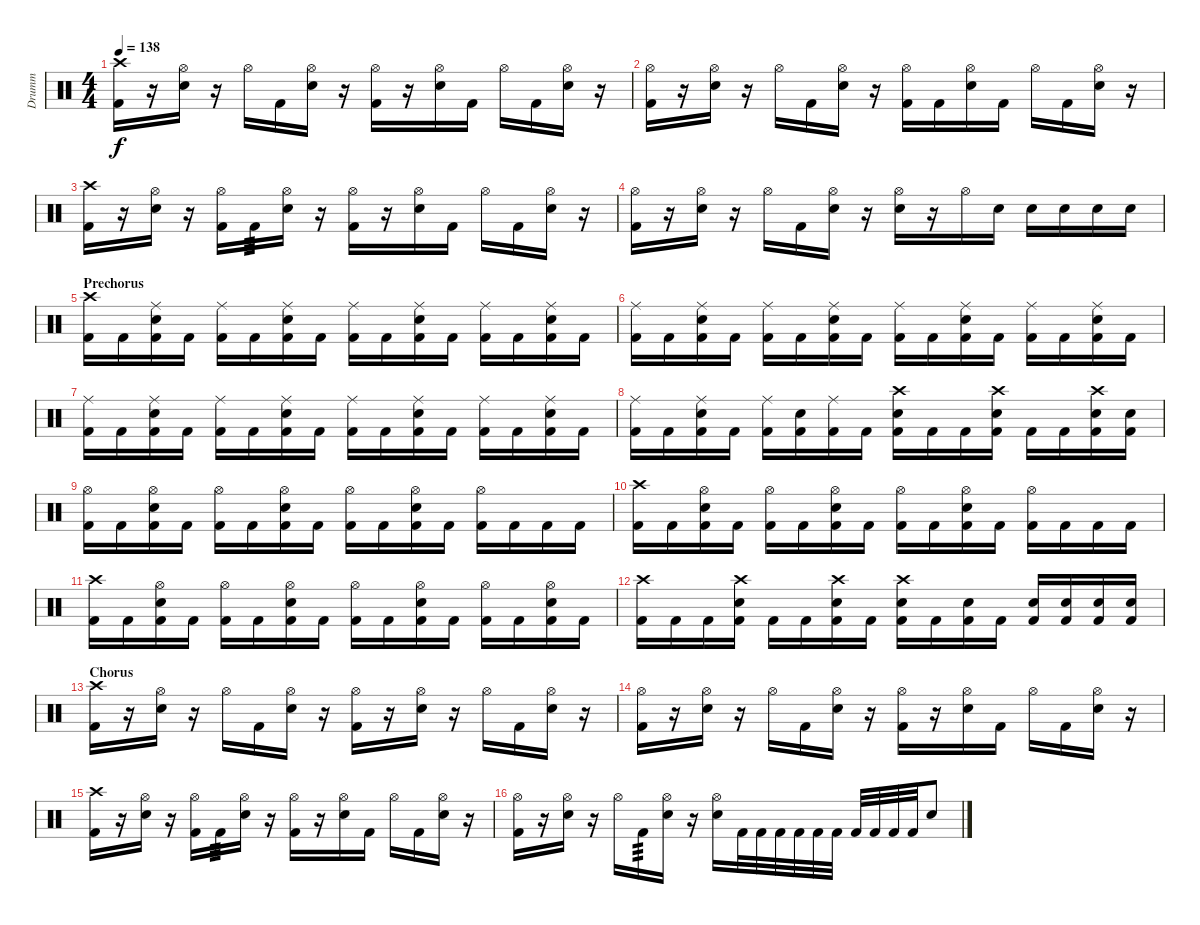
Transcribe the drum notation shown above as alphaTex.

\track ("Drumm" "Drumm") {instrument percussion}
\staff {score}
\articulation defaults
\ts (4 4)
\tempo 138
\clef neutral
\ks c
("Crash high (hit)" "Kick (hit) 2").16{dy f} r.16 ("Hi-Hat (open)" "Snare (hit) 2").16 r.16 "Hi-Hat (open)".16 "Kick (hit) 2".16 ("Hi-Hat (open)" "Snare (hit) 2").16 r.16 ("Hi-Hat (open)" "Kick (hit) 2").16 r.16 ("Hi-Hat (open)" "Snare (hit) 2").16 "Kick (hit) 2".16 "Hi-Hat (open)".16 "Kick (hit) 2".16 ("Hi-Hat (open)" "Snare (hit) 2").16 r.16 |
("Hi-Hat (open)" "Kick (hit) 2").16 r.16 ("Hi-Hat (open)" "Snare (hit) 2").16 r.16 "Hi-Hat (open)".16 "Kick (hit) 2".16 ("Hi-Hat (open)" "Snare (hit) 2").16 r.16 ("Hi-Hat (open)" "Kick (hit) 2").16 "Kick (hit) 2".16 ("Hi-Hat (open)" "Snare (hit) 2").16 "Kick (hit) 2".16 "Hi-Hat (open)".16 "Kick (hit) 2".16 ("Hi-Hat (open)" "Snare (hit) 2").16 r.16 |
("Crash high (hit)" "Kick (hit) 2").16 r.16 ("Hi-Hat (open)" "Snare (hit) 2").16 r.16 ("Hi-Hat (open)" "Kick (hit) 2").16 "Kick (hit) 2".16{tp 3} ("Hi-Hat (open)" "Snare (hit) 2").16 r.16 ("Hi-Hat (open)" "Kick (hit) 2").16 r.16 ("Hi-Hat (open)" "Snare (hit) 2").16 "Kick (hit) 2".16 "Hi-Hat (open)".16 "Kick (hit) 2".16 ("Hi-Hat (open)" "Snare (hit) 2").16 r.16 |
("Hi-Hat (open)" "Kick (hit) 2").16 r.16 ("Hi-Hat (open)" "Snare (hit) 2").16 r.16 "Hi-Hat (open)".16 "Kick (hit) 2".16 ("Hi-Hat (open)" "Snare (hit) 2").16 r.16 ("Hi-Hat (open)" "Snare (hit) 2").16 r.16 "Hi-Hat (open)".16 "Snare (hit) 2".16 "Snare (hit) 2".16 "Snare (hit) 2".16 "Snare (hit) 2".16 "Snare (hit) 2".16 |
\section ("" "Prechorus")
("Crash high (hit)" "Kick (hit) 2").16 "Kick (hit) 2".16 ("Ride (middle)" "Snare (hit) 2" "Kick (hit) 2").16 "Kick (hit) 2".16 ("Ride (middle)" "Kick (hit) 2").16 "Kick (hit) 2".16 ("Ride (middle)" "Snare (hit) 2" "Kick (hit) 2").16 "Kick (hit) 2".16 ("Ride (middle)" "Kick (hit) 2").16 "Kick (hit) 2".16 ("Ride (middle)" "Snare (hit) 2" "Kick (hit) 2").16 "Kick (hit) 2".16 ("Ride (middle)" "Kick (hit) 2").16 "Kick (hit) 2".16 ("Ride (middle)" "Snare (hit) 2" "Kick (hit) 2").16 "Kick (hit) 2".16 |
("Ride (middle)" "Kick (hit) 2").16 "Kick (hit) 2".16 ("Ride (middle)" "Snare (hit) 2" "Kick (hit) 2").16 "Kick (hit) 2".16 ("Ride (middle)" "Kick (hit) 2").16 "Kick (hit) 2".16 ("Ride (middle)" "Snare (hit) 2" "Kick (hit) 2").16 "Kick (hit) 2".16 ("Ride (middle)" "Kick (hit) 2").16 "Kick (hit) 2".16 ("Ride (middle)" "Snare (hit) 2" "Kick (hit) 2").16 "Kick (hit) 2".16 ("Ride (middle)" "Kick (hit) 2").16 "Kick (hit) 2".16 ("Ride (middle)" "Snare (hit) 2" "Kick (hit) 2").16 "Kick (hit) 2".16 |
("Ride (middle)" "Kick (hit) 2").16 "Kick (hit) 2".16 ("Ride (middle)" "Snare (hit) 2" "Kick (hit) 2").16 "Kick (hit) 2".16 ("Ride (middle)" "Kick (hit) 2").16 "Kick (hit) 2".16 ("Ride (middle)" "Snare (hit) 2" "Kick (hit) 2").16 "Kick (hit) 2".16 ("Ride (middle)" "Kick (hit) 2").16 "Kick (hit) 2".16 ("Ride (middle)" "Snare (hit) 2" "Kick (hit) 2").16 "Kick (hit) 2".16 ("Ride (middle)" "Kick (hit) 2").16 "Kick (hit) 2".16 ("Ride (middle)" "Snare (hit) 2" "Kick (hit) 2").16 "Kick (hit) 2".16 |
("Ride (middle)" "Kick (hit) 2").16 "Kick (hit) 2".16 ("Ride (middle)" "Snare (hit) 2" "Kick (hit) 2").16 "Kick (hit) 2".16 ("Ride (middle)" "Kick (hit) 2").16 ("Snare (hit) 2" "Kick (hit) 2").16 ("Ride (middle)" "Kick (hit) 2").16 "Kick (hit) 2".16 ("Crash high (hit)" "Snare (hit) 2" "Kick (hit) 2").16 "Kick (hit) 2".16 "Kick (hit) 2".16 ("Crash high (hit)" "Snare (hit) 2" "Kick (hit) 2").16 "Kick (hit) 2".16 "Kick (hit) 2".16 ("Crash high (hit)" "Snare (hit) 2" "Kick (hit) 2").16 ("Snare (hit) 2" "Kick (hit) 2").16 |
("Hi-Hat (open)" "Kick (hit) 2").16 "Kick (hit) 2".16 ("Hi-Hat (open)" "Snare (hit) 2" "Kick (hit) 2").16 "Kick (hit) 2".16 ("Hi-Hat (open)" "Kick (hit) 2").16 "Kick (hit) 2".16 ("Hi-Hat (open)" "Snare (hit) 2" "Kick (hit) 2").16 "Kick (hit) 2".16 ("Hi-Hat (open)" "Kick (hit) 2").16 "Kick (hit) 2".16 ("Hi-Hat (open)" "Snare (hit) 2" "Kick (hit) 2").16 "Kick (hit) 2".16 ("Hi-Hat (open)" "Kick (hit) 2").16 "Kick (hit) 2".16 "Kick (hit) 2".16 "Kick (hit) 2".16 |
("Crash high (hit)" "Kick (hit) 2").16 "Kick (hit) 2".16 ("Hi-Hat (open)" "Snare (hit) 2" "Kick (hit) 2").16 "Kick (hit) 2".16 ("Hi-Hat (open)" "Kick (hit) 2").16 "Kick (hit) 2".16 ("Hi-Hat (open)" "Snare (hit) 2" "Kick (hit) 2").16 "Kick (hit) 2".16 ("Hi-Hat (open)" "Kick (hit) 2").16 "Kick (hit) 2".16 ("Hi-Hat (open)" "Snare (hit) 2" "Kick (hit) 2").16 "Kick (hit) 2".16 ("Hi-Hat (open)" "Kick (hit) 2").16 "Kick (hit) 2".16 "Kick (hit) 2".16 "Kick (hit) 2".16 |
("Crash high (hit)" "Kick (hit) 2").16 "Kick (hit) 2".16 ("Hi-Hat (open)" "Snare (hit) 2" "Kick (hit) 2").16 "Kick (hit) 2".16 ("Hi-Hat (open)" "Kick (hit) 2").16 "Kick (hit) 2".16 ("Hi-Hat (open)" "Snare (hit) 2" "Kick (hit) 2").16 "Kick (hit) 2".16 ("Hi-Hat (open)" "Kick (hit) 2").16 "Kick (hit) 2".16 ("Hi-Hat (open)" "Snare (hit) 2" "Kick (hit) 2").16 "Kick (hit) 2".16 ("Hi-Hat (open)" "Kick (hit) 2").16 "Kick (hit) 2".16 ("Hi-Hat (open)" "Snare (hit) 2" "Kick (hit) 2").16 "Kick (hit) 2".16 |
("Crash high (hit)" "Kick (hit) 2").16 "Kick (hit) 2".16 "Kick (hit) 2".16 ("Crash high (hit)" "Snare (hit) 2" "Kick (hit) 2").16 "Kick (hit) 2".16 "Kick (hit) 2".16 ("Crash high (hit)" "Snare (hit) 2" "Kick (hit) 2").16 "Kick (hit) 2".16 ("Crash high (hit)" "Snare (hit) 2" "Kick (hit) 2").16 "Kick (hit) 2".16 ("Snare (hit) 2" "Kick (hit) 2").16 "Kick (hit) 2".16 ("Snare (hit) 2" "Kick (hit) 2").16 ("Snare (hit) 2" "Kick (hit) 2").16 ("Snare (hit) 2" "Kick (hit) 2").16 ("Snare (hit) 2" "Kick (hit) 2").16 |
\section ("" "Chorus")
("Crash high (hit)" "Kick (hit) 2").16 r.16 ("Hi-Hat (open)" "Snare (hit) 2").16 r.16 "Hi-Hat (open)".16 "Kick (hit) 2".16 ("Hi-Hat (open)" "Snare (hit) 2").16 r.16 ("Hi-Hat (open)" "Kick (hit) 2").16 r.16 ("Hi-Hat (open)" "Snare (hit) 2").16 r.16 "Hi-Hat (open)".16 "Kick (hit) 2".16 ("Hi-Hat (open)" "Snare (hit) 2").16 r.16 |
("Hi-Hat (open)" "Kick (hit) 2").16 r.16 ("Hi-Hat (open)" "Snare (hit) 2").16 r.16 "Hi-Hat (open)".16 "Kick (hit) 2".16 ("Hi-Hat (open)" "Snare (hit) 2").16 r.16 ("Hi-Hat (open)" "Kick (hit) 2").16 r.16 ("Hi-Hat (open)" "Snare (hit) 2").16 "Kick (hit) 2".16 "Hi-Hat (open)".16 "Kick (hit) 2".16 ("Hi-Hat (open)" "Snare (hit) 2").16 r.16 |
("Crash high (hit)" "Kick (hit) 2").16 r.16 ("Hi-Hat (open)" "Snare (hit) 2").16 r.16 ("Hi-Hat (open)" "Kick (hit) 2").16 "Kick (hit) 2".16{tp 3} ("Hi-Hat (open)" "Snare (hit) 2").16 r.16 ("Hi-Hat (open)" "Kick (hit) 2").16 r.16 ("Hi-Hat (open)" "Snare (hit) 2").16 "Kick (hit) 2".16 "Hi-Hat (open)".16 "Kick (hit) 2".16 ("Hi-Hat (open)" "Snare (hit) 2").16 r.16 |
("Hi-Hat (open)" "Kick (hit) 2").16 r.16 ("Hi-Hat (open)" "Snare (hit) 2").16 r.16 "Hi-Hat (open)".16 "Kick (hit) 2".16{tp 3} ("Hi-Hat (open)" "Snare (hit) 2").16 r.16 ("Hi-Hat (open)" "Snare (hit) 2").16 "Kick (hit) 2".32 "Kick (hit) 2".32 "Kick (hit) 2".32 "Kick (hit) 2".32 "Kick (hit) 2".32 "Kick (hit) 2".32 "Kick (hit) 2".32 "Kick (hit) 2".32 "Kick (hit) 2".32 "Kick (hit) 2".32 "Snare (hit) 2".8
